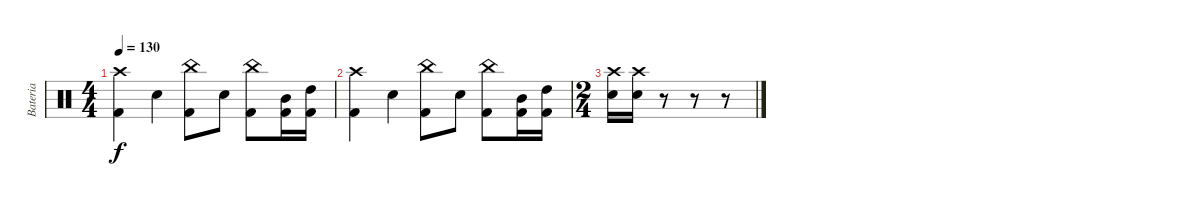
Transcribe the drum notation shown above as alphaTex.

\track ("Bateria" "Bateria") {instrument percussion}
\staff {score}
\articulation defaults
\ts (4 4)
\tempo 130
\clef neutral
\ks c
("Kick (hit) 2" "Crash high (hit)").4{dy f} "Electric Snare (hit)".4 ("China (hit)" "Kick (hit) 2").8 "Electric Snare (hit)".8 ("China (hit)" "Kick (hit) 2").8 ("Mid Tom (hit)" "Kick (hit) 2").16 ("High Tom (hit)" "Kick (hit) 2").16 |
("Kick (hit) 2" "Crash high (hit)").4 "Electric Snare (hit)".4 ("China (hit)" "Kick (hit) 2").8 "Electric Snare (hit)".8 ("China (hit)" "Kick (hit) 2").8 ("Mid Tom (hit)" "Kick (hit) 2").16 ("High Tom (hit)" "Kick (hit) 2").16 |
\ts (2 4)
("Electric Snare (hit)" "Crash high (hit)").16 ("Electric Snare (hit)" "Crash high (hit)").16 r.8 r.8 r.8
